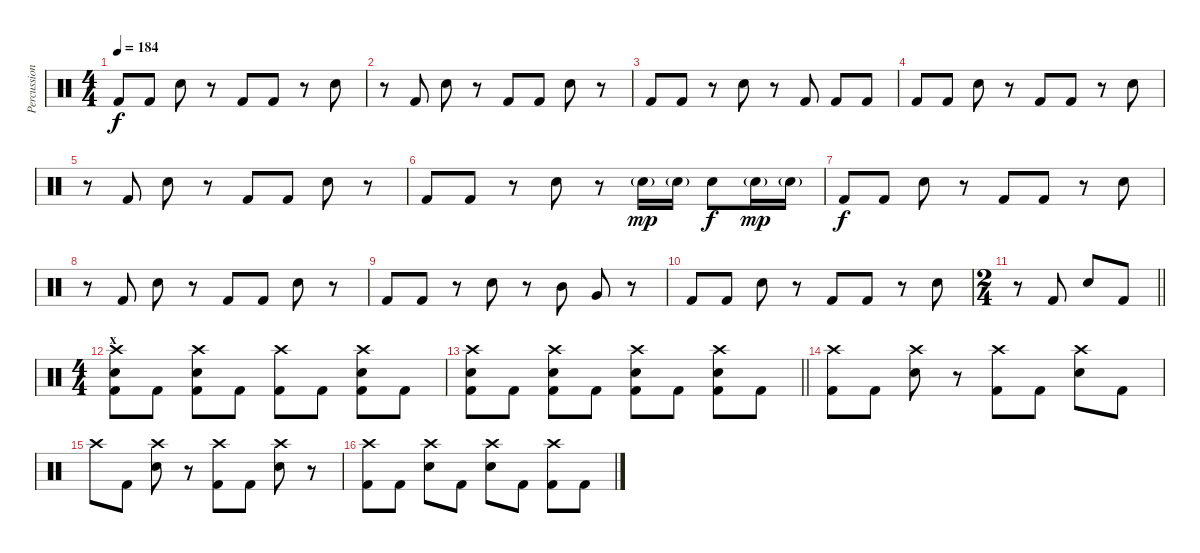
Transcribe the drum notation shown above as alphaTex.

\track ("Percussion" "Percussion") {instrument percussion}
\staff {score}
\articulation defaults
\ts (4 4)
\tempo 184
\clef neutral
\ks c "Kick (hit) 2".8{dy f} "Kick (hit) 2".8 "Electric Snare (hit)".8
r.8 "Kick (hit) 2".8 "Kick (hit) 2".8 r.8 "Electric Snare (hit)".8 |
r.8 "Kick (hit) 2".8 "Electric Snare (hit)".8 r.8 "Kick (hit) 2".8 "Kick (hit) 2".8 "Electric Snare (hit)".8 r.8 |
"Kick (hit) 2".8 "Kick (hit) 2".8 r.8 "Electric Snare (hit)".8 r.8 "Kick (hit) 2".8 "Kick (hit) 2".8 "Kick (hit) 2".8 |
"Kick (hit) 2".8 "Kick (hit) 2".8 "Electric Snare (hit)".8 r.8 "Kick (hit) 2".8 "Kick (hit) 2".8 r.8 "Electric Snare (hit)".8 |
r.8 "Kick (hit) 2".8 "Electric Snare (hit)".8 r.8 "Kick (hit) 2".8 "Kick (hit) 2".8 "Electric Snare (hit)".8 r.8 |
"Kick (hit) 2".8 "Kick (hit) 2".8 r.8 "Electric Snare (hit)".8 r.8 "Electric Snare (hit)"{g}.16{dy mp} "Electric Snare (hit)"{g}.16 "Electric Snare (hit)".8{dy f} "Electric Snare (hit)"{g}.16{dy mp} "Electric Snare (hit)"{g}.16 |
"Kick (hit) 2".8{dy f} "Kick (hit) 2".8 "Electric Snare (hit)".8 r.8 "Kick (hit) 2".8 "Kick (hit) 2".8 r.8 "Electric Snare (hit)".8 |
r.8 "Kick (hit) 2".8 "Electric Snare (hit)".8 r.8 "Kick (hit) 2".8 "Kick (hit) 2".8 "Electric Snare (hit)".8 r.8 |
"Kick (hit) 2".8 "Kick (hit) 2".8 r.8 "Electric Snare (hit)".8 r.8 "Mid Tom (hit)".8 "Very Low Tom (hit)".8 r.8 |
"Kick (hit) 2".8 "Kick (hit) 2".8 "Electric Snare (hit)".8 r.8 "Kick (hit) 2".8 "Kick (hit) 2".8 r.8 "Electric Snare (hit)".8 |
\ts (2 4)
\barLineRight lightlight
r.8 "Kick (hit) 2".8 "Electric Snare (hit)".8 "Kick (hit) 2".8 |
\ts (4 4)
\section ("" "x")
("Crash high (hit)" "Electric Snare (hit)" "Kick (hit) 2").8 "Kick (hit) 2".8 ("Crash high (hit)" "Electric Snare (hit)" "Kick (hit) 2").8 "Kick (hit) 2".8 ("Crash high (hit)" "Kick (hit) 2").8 "Kick (hit) 2".8 ("Crash high (hit)" "Electric Snare (hit)" "Kick (hit) 2").8 "Kick (hit) 2".8 |
\barLineRight lightlight
("Crash high (hit)" "Electric Snare (hit)" "Kick (hit) 2").8 "Kick (hit) 2".8 ("Crash high (hit)" "Electric Snare (hit)" "Kick (hit) 2").8 "Kick (hit) 2".8 ("Crash high (hit)" "Electric Snare (hit)" "Kick (hit) 2").8 "Kick (hit) 2".8 ("Crash high (hit)" "Electric Snare (hit)" "Kick (hit) 2").8 "Kick (hit) 2".8 |
("Crash high (hit)" "Kick (hit) 2").8 "Kick (hit) 2".8 ("Crash high (hit)" "Electric Snare (hit)").8 r.8 ("Crash high (hit)" "Kick (hit) 2").8 "Kick (hit) 2".8 ("Crash high (hit)" "Electric Snare (hit)").8 "Kick (hit) 2".8 |
"Crash high (hit)".8 "Kick (hit) 2".8 ("Crash high (hit)" "Electric Snare (hit)").8 r.8 ("Crash high (hit)" "Kick (hit) 2").8 "Kick (hit) 2".8 ("Crash high (hit)" "Electric Snare (hit)").8 r.8 |
("Crash high (hit)" "Kick (hit) 2").8 "Kick (hit) 2".8 ("Crash high (hit)" "Electric Snare (hit)").8 "Kick (hit) 2".8 ("Crash high (hit)" "Electric Snare (hit)").8 "Kick (hit) 2".8 ("Crash high (hit)" "Kick (hit) 2").8 "Kick (hit) 2".8
